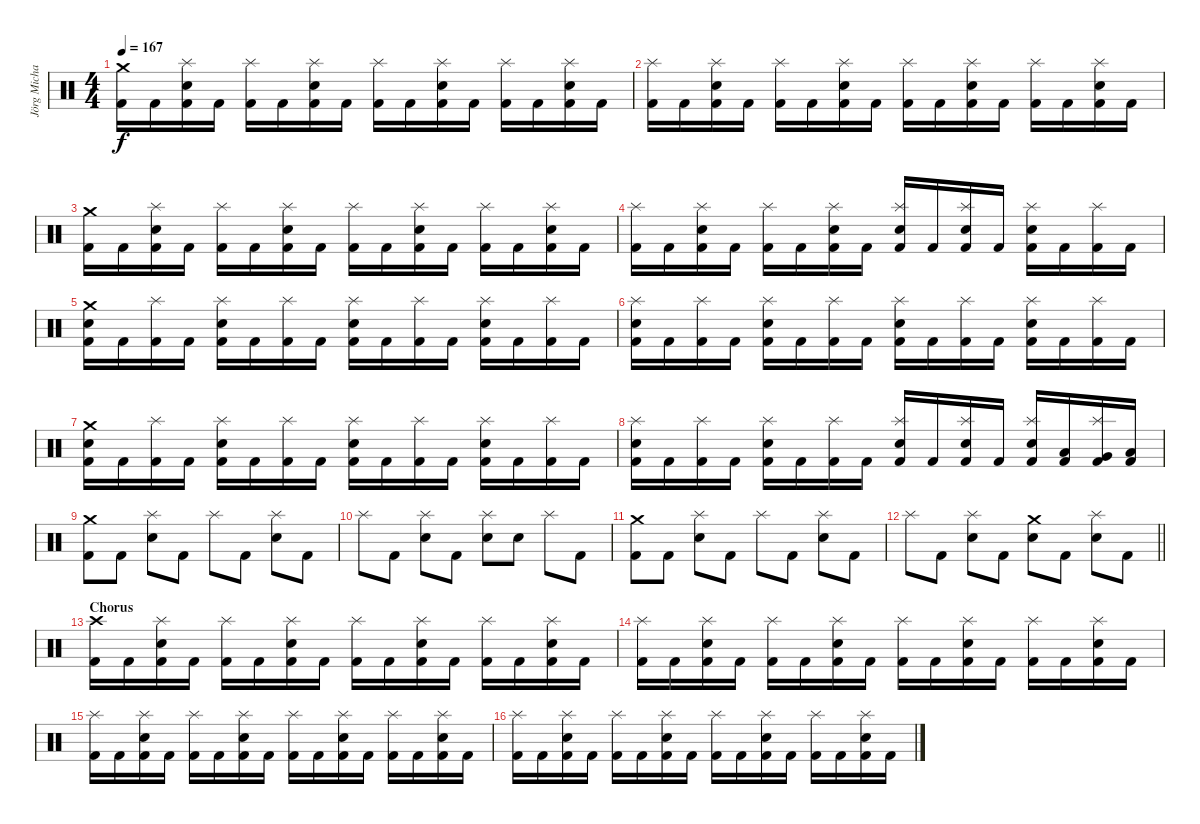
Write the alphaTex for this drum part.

\track ("Jörg Michael" "Jörg Micha") {instrument percussion}
\staff {score}
\articulation defaults
\ts (4 4)
\tempo 167
\clef neutral
\ks c
("Crash medium (hit)" "Kick (hit) 2").16{dy f} "Kick (hit) 2".16 ("Splash (hit)" "Snare (hit) 2" "Kick (hit) 2").16 "Kick (hit) 2".16 ("Splash (hit)" "Kick (hit) 2").16 "Kick (hit) 2".16 ("Splash (hit)" "Snare (hit) 2" "Kick (hit) 2").16 "Kick (hit) 2".16 ("Splash (hit)" "Kick (hit) 2").16 "Kick (hit) 2".16 ("Splash (hit)" "Snare (hit) 2" "Kick (hit) 2").16 "Kick (hit) 2".16 ("Splash (hit)" "Kick (hit) 2").16 "Kick (hit) 2".16 ("Splash (hit)" "Snare (hit) 2" "Kick (hit) 2").16 "Kick (hit) 2".16 |
("Splash (hit)" "Kick (hit) 2").16 "Kick (hit) 2".16 ("Splash (hit)" "Snare (hit) 2" "Kick (hit) 2").16 "Kick (hit) 2".16 ("Splash (hit)" "Kick (hit) 2").16 "Kick (hit) 2".16 ("Splash (hit)" "Snare (hit) 2" "Kick (hit) 2").16 "Kick (hit) 2".16 ("Splash (hit)" "Kick (hit) 2").16 "Kick (hit) 2".16 ("Splash (hit)" "Snare (hit) 2" "Kick (hit) 2").16 "Kick (hit) 2".16 ("Splash (hit)" "Kick (hit) 2").16 "Kick (hit) 2".16 ("Splash (hit)" "Snare (hit) 2" "Kick (hit) 2").16 "Kick (hit) 2".16 |
("Crash medium (hit)" "Kick (hit) 2").16 "Kick (hit) 2".16 ("Splash (hit)" "Snare (hit) 2" "Kick (hit) 2").16 "Kick (hit) 2".16 ("Splash (hit)" "Kick (hit) 2").16 "Kick (hit) 2".16 ("Splash (hit)" "Snare (hit) 2" "Kick (hit) 2").16 "Kick (hit) 2".16 ("Splash (hit)" "Kick (hit) 2").16 "Kick (hit) 2".16 ("Splash (hit)" "Snare (hit) 2" "Kick (hit) 2").16 "Kick (hit) 2".16 ("Splash (hit)" "Kick (hit) 2").16 "Kick (hit) 2".16 ("Splash (hit)" "Snare (hit) 2" "Kick (hit) 2").16 "Kick (hit) 2".16 |
("Splash (hit)" "Kick (hit) 2").16 "Kick (hit) 2".16 ("Splash (hit)" "Snare (hit) 2" "Kick (hit) 2").16 "Kick (hit) 2".16 ("Splash (hit)" "Kick (hit) 2").16 "Kick (hit) 2".16 ("Splash (hit)" "Snare (hit) 2" "Kick (hit) 2").16 "Kick (hit) 2".16 ("Splash (hit)" "Snare (hit) 2" "Kick (hit) 2").16 "Kick (hit) 2".16 ("Splash (hit)" "Snare (hit) 2" "Kick (hit) 2").16 "Kick (hit) 2".16 ("Splash (hit)" "Snare (hit) 2" "Kick (hit) 2").16 "Kick (hit) 2".16 ("Splash (hit)" "Kick (hit) 2").16 "Kick (hit) 2".16 |
("Crash medium (hit)" "Snare (hit) 2" "Kick (hit) 2").16 "Kick (hit) 2".16 ("Splash (hit)" "Kick (hit) 2").16 "Kick (hit) 2".16 ("Splash (hit)" "Snare (hit) 2" "Kick (hit) 2").16 "Kick (hit) 2".16 ("Splash (hit)" "Kick (hit) 2").16 "Kick (hit) 2".16 ("Splash (hit)" "Snare (hit) 2" "Kick (hit) 2").16 "Kick (hit) 2".16 ("Splash (hit)" "Kick (hit) 2").16 "Kick (hit) 2".16 ("Splash (hit)" "Snare (hit) 2" "Kick (hit) 2").16 "Kick (hit) 2".16 ("Splash (hit)" "Kick (hit) 2").16 "Kick (hit) 2".16 |
("Splash (hit)" "Snare (hit) 2" "Kick (hit) 2").16 "Kick (hit) 2".16 ("Splash (hit)" "Kick (hit) 2").16 "Kick (hit) 2".16 ("Splash (hit)" "Snare (hit) 2" "Kick (hit) 2").16 "Kick (hit) 2".16 ("Splash (hit)" "Kick (hit) 2").16 "Kick (hit) 2".16 ("Splash (hit)" "Snare (hit) 2" "Kick (hit) 2").16 "Kick (hit) 2".16 ("Splash (hit)" "Kick (hit) 2").16 "Kick (hit) 2".16 ("Splash (hit)" "Snare (hit) 2" "Kick (hit) 2").16 "Kick (hit) 2".16 ("Splash (hit)" "Kick (hit) 2").16 "Kick (hit) 2".16 |
("Crash medium (hit)" "Snare (hit) 2" "Kick (hit) 2").16 "Kick (hit) 2".16 ("Splash (hit)" "Kick (hit) 2").16 "Kick (hit) 2".16 ("Splash (hit)" "Snare (hit) 2" "Kick (hit) 2").16 "Kick (hit) 2".16 ("Splash (hit)" "Kick (hit) 2").16 "Kick (hit) 2".16 ("Splash (hit)" "Snare (hit) 2" "Kick (hit) 2").16 "Kick (hit) 2".16 ("Splash (hit)" "Kick (hit) 2").16 "Kick (hit) 2".16 ("Splash (hit)" "Snare (hit) 2" "Kick (hit) 2").16 "Kick (hit) 2".16 ("Splash (hit)" "Kick (hit) 2").16 "Kick (hit) 2".16 |
("Splash (hit)" "Snare (hit) 2" "Kick (hit) 2").16 "Kick (hit) 2".16 ("Splash (hit)" "Kick (hit) 2").16 "Kick (hit) 2".16 ("Splash (hit)" "Snare (hit) 2" "Kick (hit) 2").16 "Kick (hit) 2".16 ("Splash (hit)" "Kick (hit) 2").16 "Kick (hit) 2".16 ("Splash (hit)" "Snare (hit) 2" "Kick (hit) 2").16 "Kick (hit) 2".16 ("Splash (hit)" "Snare (hit) 2" "Kick (hit) 2").16 "Kick (hit) 2".16 ("Splash (hit)" "Snare (hit) 2" "Kick (hit) 2").16 ("Low Tom (hit)" "Kick (hit) 2").16 ("Splash (hit)" "Very Low Tom (hit)" "Kick (hit) 2").16 ("Low Floor Tom (hit)" "Kick (hit) 2").16 |
("Crash medium (hit)" "Kick (hit) 2").8 "Kick (hit) 2".8 ("Splash (hit)" "Snare (hit) 2").8 "Kick (hit) 2".8 "Splash (hit)".8 "Kick (hit) 2".8 ("Splash (hit)" "Snare (hit) 2").8 "Kick (hit) 2".8 |
"Splash (hit)".8 "Kick (hit) 2".8 ("Splash (hit)" "Snare (hit) 2").8 "Kick (hit) 2".8 ("Splash (hit)" "Snare (hit) 2").8 "Snare (hit) 2".8 "Splash (hit)".8 "Kick (hit) 2".8 |
("Crash medium (hit)" "Kick (hit) 2").8 "Kick (hit) 2".8 ("Splash (hit)" "Snare (hit) 2").8 "Kick (hit) 2".8 "Splash (hit)".8 "Kick (hit) 2".8 ("Splash (hit)" "Snare (hit) 2").8 "Kick (hit) 2".8 |
\barLineRight lightlight "Splash (hit)".8 "Kick (hit) 2".8
("Splash (hit)" "Snare (hit) 2").8 "Kick (hit) 2".8 ("Crash medium (hit)" "Snare (hit) 2").8 "Kick (hit) 2".8 ("Splash (hit)" "Snare (hit) 2").8 "Kick (hit) 2".8 |
\section ("" "Chorus")
("Crash high (hit)" "Kick (hit) 2").16 "Kick (hit) 2".16 ("Splash (hit)" "Snare (hit) 2" "Kick (hit) 2").16 "Kick (hit) 2".16 ("Splash (hit)" "Kick (hit) 2").16 "Kick (hit) 2".16 ("Splash (hit)" "Snare (hit) 2" "Kick (hit) 2").16 "Kick (hit) 2".16 ("Splash (hit)" "Kick (hit) 2").16 "Kick (hit) 2".16 ("Splash (hit)" "Snare (hit) 2" "Kick (hit) 2").16 "Kick (hit) 2".16 ("Splash (hit)" "Kick (hit) 2").16 "Kick (hit) 2".16 ("Splash (hit)" "Snare (hit) 2" "Kick (hit) 2").16 "Kick (hit) 2".16 |
("Splash (hit)" "Kick (hit) 2").16 "Kick (hit) 2".16 ("Splash (hit)" "Snare (hit) 2" "Kick (hit) 2").16 "Kick (hit) 2".16 ("Splash (hit)" "Kick (hit) 2").16 "Kick (hit) 2".16 ("Splash (hit)" "Snare (hit) 2" "Kick (hit) 2").16 "Kick (hit) 2".16 ("Splash (hit)" "Kick (hit) 2").16 "Kick (hit) 2".16 ("Splash (hit)" "Snare (hit) 2" "Kick (hit) 2").16 "Kick (hit) 2".16 ("Splash (hit)" "Kick (hit) 2").16 "Kick (hit) 2".16 ("Splash (hit)" "Snare (hit) 2" "Kick (hit) 2").16 "Kick (hit) 2".16 |
("Splash (hit)" "Kick (hit) 2").16 "Kick (hit) 2".16 ("Splash (hit)" "Snare (hit) 2" "Kick (hit) 2").16 "Kick (hit) 2".16 ("Splash (hit)" "Kick (hit) 2").16 "Kick (hit) 2".16 ("Splash (hit)" "Snare (hit) 2" "Kick (hit) 2").16 "Kick (hit) 2".16 ("Splash (hit)" "Kick (hit) 2").16 "Kick (hit) 2".16 ("Splash (hit)" "Snare (hit) 2" "Kick (hit) 2").16 "Kick (hit) 2".16 ("Splash (hit)" "Kick (hit) 2").16 "Kick (hit) 2".16 ("Splash (hit)" "Snare (hit) 2" "Kick (hit) 2").16 "Kick (hit) 2".16 |
("Splash (hit)" "Kick (hit) 2").16 "Kick (hit) 2".16 ("Splash (hit)" "Snare (hit) 2" "Kick (hit) 2").16 "Kick (hit) 2".16 ("Splash (hit)" "Kick (hit) 2").16 "Kick (hit) 2".16 ("Splash (hit)" "Snare (hit) 2" "Kick (hit) 2").16 "Kick (hit) 2".16 ("Splash (hit)" "Kick (hit) 2").16 "Kick (hit) 2".16 ("Splash (hit)" "Snare (hit) 2" "Kick (hit) 2").16 "Kick (hit) 2".16 ("Splash (hit)" "Kick (hit) 2").16 "Kick (hit) 2".16 ("Splash (hit)" "Snare (hit) 2" "Kick (hit) 2").16 "Kick (hit) 2".16
